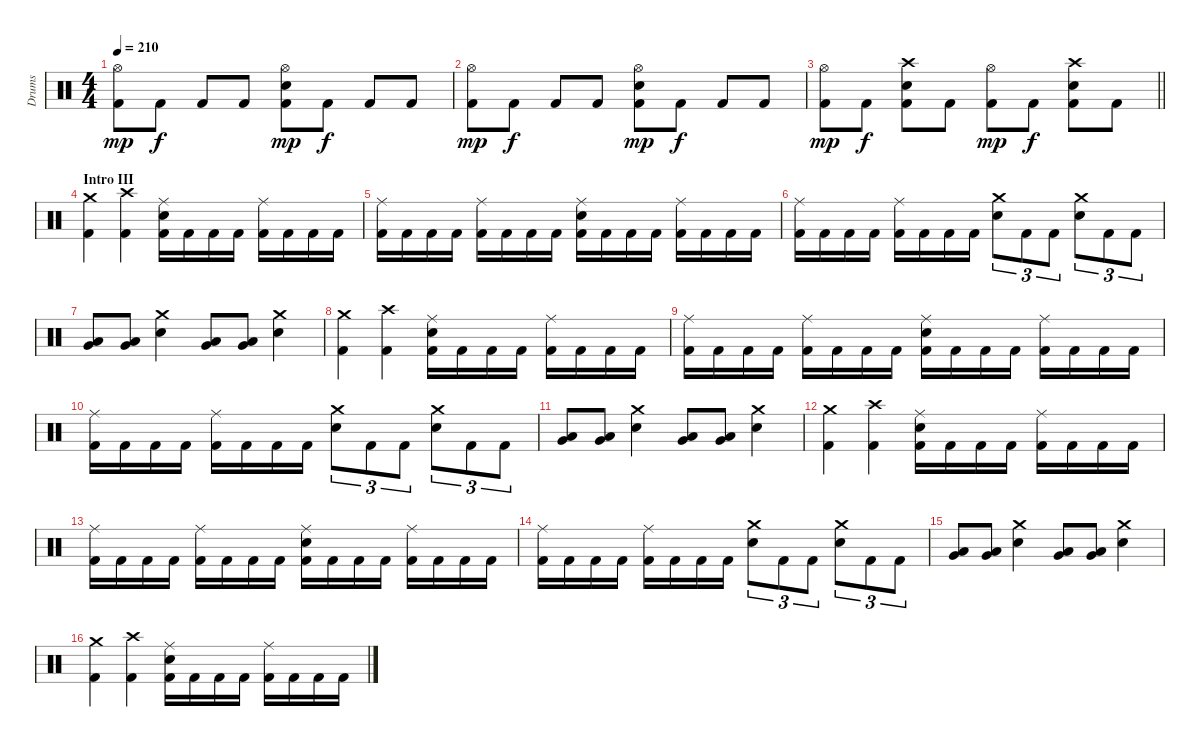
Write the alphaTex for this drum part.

\track ("Drums" "Drums") {instrument percussion}
\staff {score}
\articulation defaults
\ts (4 4)
\tempo 210
\clef neutral
\ks c
("Hi-Hat (open)" "Kick (hit) 2").8{dy mp} "Kick (hit) 2".8{dy f} "Kick (hit) 2".8 "Kick (hit) 2".8 ("Hi-Hat (open)" "Snare (hit) 2" "Kick (hit) 2").8{dy mp} "Kick (hit) 2".8{dy f} "Kick (hit) 2".8 "Kick (hit) 2".8 |
("Hi-Hat (open)" "Kick (hit) 2").8{dy mp} "Kick (hit) 2".8{dy f} "Kick (hit) 2".8 "Kick (hit) 2".8 ("Hi-Hat (open)" "Snare (hit) 2" "Kick (hit) 2").8{dy mp} "Kick (hit) 2".8{dy f} "Kick (hit) 2".8 "Kick (hit) 2".8 |
\barLineRight lightlight
("Hi-Hat (open)" "Kick (hit) 2").8{dy mp} "Kick (hit) 2".8{dy f} ("Crash high (hit)" "Snare (hit) 2" "Kick (hit) 2").8 "Kick (hit) 2".8 ("Hi-Hat (open)" "Kick (hit) 2").8{dy mp} "Kick (hit) 2".8{dy f} ("Crash high (hit)" "Snare (hit) 2" "Kick (hit) 2").8 "Kick (hit) 2".8 |
\section ("" "Intro III")
("Crash medium (hit)" "Kick (hit) 2").4 ("Crash high (hit)" "Kick (hit) 2").4 ("Ride (middle)" "Snare (hit) 2" "Kick (hit) 2").16 "Kick (hit) 2".16 "Kick (hit) 2".16 "Kick (hit) 2".16 ("Ride (middle)" "Kick (hit) 2").16 "Kick (hit) 2".16 "Kick (hit) 2".16 "Kick (hit) 2".16 |
("Ride (middle)" "Kick (hit) 2").16 "Kick (hit) 2".16 "Kick (hit) 2".16 "Kick (hit) 2".16 ("Ride (middle)" "Kick (hit) 2").16 "Kick (hit) 2".16 "Kick (hit) 2".16 "Kick (hit) 2".16 ("Ride (middle)" "Snare (hit) 2" "Kick (hit) 2").16 "Kick (hit) 2".16 "Kick (hit) 2".16 "Kick (hit) 2".16 ("Ride (middle)" "Kick (hit) 2").16 "Kick (hit) 2".16 "Kick (hit) 2".16 "Kick (hit) 2".16 |
("Ride (middle)" "Kick (hit) 2").16 "Kick (hit) 2".16 "Kick (hit) 2".16 "Kick (hit) 2".16 ("Ride (middle)" "Kick (hit) 2").16 "Kick (hit) 2".16 "Kick (hit) 2".16 "Kick (hit) 2".16 ("Crash medium (hit)" "Snare (hit) 2").8{tu (3 2)} "Kick (hit) 2".8{tu (3 2)} "Kick (hit) 2".8{tu (3 2)} ("Crash medium (hit)" "Snare (hit) 2").8{tu (3 2)} "Kick (hit) 2".8{tu (3 2)} "Kick (hit) 2".8{tu (3 2)} |
("Very Low Tom (hit)" "Low Tom (hit)").8 ("Very Low Tom (hit)" "Low Tom (hit)").8 ("Crash medium (hit)" "Snare (hit) 2").4 ("Very Low Tom (hit)" "Low Tom (hit)").8 ("Very Low Tom (hit)" "Low Tom (hit)").8 ("Crash medium (hit)" "Snare (hit) 2").4 |
("Crash medium (hit)" "Kick (hit) 2").4 ("Crash high (hit)" "Kick (hit) 2").4 ("Ride (middle)" "Snare (hit) 2" "Kick (hit) 2").16 "Kick (hit) 2".16 "Kick (hit) 2".16 "Kick (hit) 2".16 ("Ride (middle)" "Kick (hit) 2").16 "Kick (hit) 2".16 "Kick (hit) 2".16 "Kick (hit) 2".16 |
("Ride (middle)" "Kick (hit) 2").16 "Kick (hit) 2".16 "Kick (hit) 2".16 "Kick (hit) 2".16 ("Ride (middle)" "Kick (hit) 2").16 "Kick (hit) 2".16 "Kick (hit) 2".16 "Kick (hit) 2".16 ("Ride (middle)" "Snare (hit) 2" "Kick (hit) 2").16 "Kick (hit) 2".16 "Kick (hit) 2".16 "Kick (hit) 2".16 ("Ride (middle)" "Kick (hit) 2").16 "Kick (hit) 2".16 "Kick (hit) 2".16 "Kick (hit) 2".16 |
("Ride (middle)" "Kick (hit) 2").16 "Kick (hit) 2".16 "Kick (hit) 2".16 "Kick (hit) 2".16 ("Ride (middle)" "Kick (hit) 2").16 "Kick (hit) 2".16 "Kick (hit) 2".16 "Kick (hit) 2".16 ("Crash medium (hit)" "Snare (hit) 2").8{tu (3 2)} "Kick (hit) 2".8{tu (3 2)} "Kick (hit) 2".8{tu (3 2)} ("Crash medium (hit)" "Snare (hit) 2").8{tu (3 2)} "Kick (hit) 2".8{tu (3 2)} "Kick (hit) 2".8{tu (3 2)} |
("Very Low Tom (hit)" "Low Tom (hit)").8 ("Very Low Tom (hit)" "Low Tom (hit)").8 ("Crash medium (hit)" "Snare (hit) 2").4 ("Very Low Tom (hit)" "Low Tom (hit)").8 ("Very Low Tom (hit)" "Low Tom (hit)").8 ("Crash medium (hit)" "Snare (hit) 2").4 |
("Crash medium (hit)" "Kick (hit) 2").4 ("Crash high (hit)" "Kick (hit) 2").4 ("Ride (middle)" "Snare (hit) 2" "Kick (hit) 2").16 "Kick (hit) 2".16 "Kick (hit) 2".16 "Kick (hit) 2".16 ("Ride (middle)" "Kick (hit) 2").16 "Kick (hit) 2".16 "Kick (hit) 2".16 "Kick (hit) 2".16 |
("Ride (middle)" "Kick (hit) 2").16 "Kick (hit) 2".16 "Kick (hit) 2".16 "Kick (hit) 2".16 ("Ride (middle)" "Kick (hit) 2").16 "Kick (hit) 2".16 "Kick (hit) 2".16 "Kick (hit) 2".16 ("Ride (middle)" "Snare (hit) 2" "Kick (hit) 2").16 "Kick (hit) 2".16 "Kick (hit) 2".16 "Kick (hit) 2".16 ("Ride (middle)" "Kick (hit) 2").16 "Kick (hit) 2".16 "Kick (hit) 2".16 "Kick (hit) 2".16 |
("Ride (middle)" "Kick (hit) 2").16 "Kick (hit) 2".16 "Kick (hit) 2".16 "Kick (hit) 2".16 ("Ride (middle)" "Kick (hit) 2").16 "Kick (hit) 2".16 "Kick (hit) 2".16 "Kick (hit) 2".16 ("Crash medium (hit)" "Snare (hit) 2").8{tu (3 2)} "Kick (hit) 2".8{tu (3 2)} "Kick (hit) 2".8{tu (3 2)} ("Crash medium (hit)" "Snare (hit) 2").8{tu (3 2)} "Kick (hit) 2".8{tu (3 2)} "Kick (hit) 2".8{tu (3 2)} |
("Very Low Tom (hit)" "Low Tom (hit)").8 ("Very Low Tom (hit)" "Low Tom (hit)").8 ("Crash medium (hit)" "Snare (hit) 2").4 ("Very Low Tom (hit)" "Low Tom (hit)").8 ("Very Low Tom (hit)" "Low Tom (hit)").8 ("Crash medium (hit)" "Snare (hit) 2").4 |
("Crash medium (hit)" "Kick (hit) 2").4 ("Crash high (hit)" "Kick (hit) 2").4 ("Ride (middle)" "Snare (hit) 2" "Kick (hit) 2").16 "Kick (hit) 2".16 "Kick (hit) 2".16 "Kick (hit) 2".16 ("Ride (middle)" "Kick (hit) 2").16 "Kick (hit) 2".16 "Kick (hit) 2".16 "Kick (hit) 2".16
